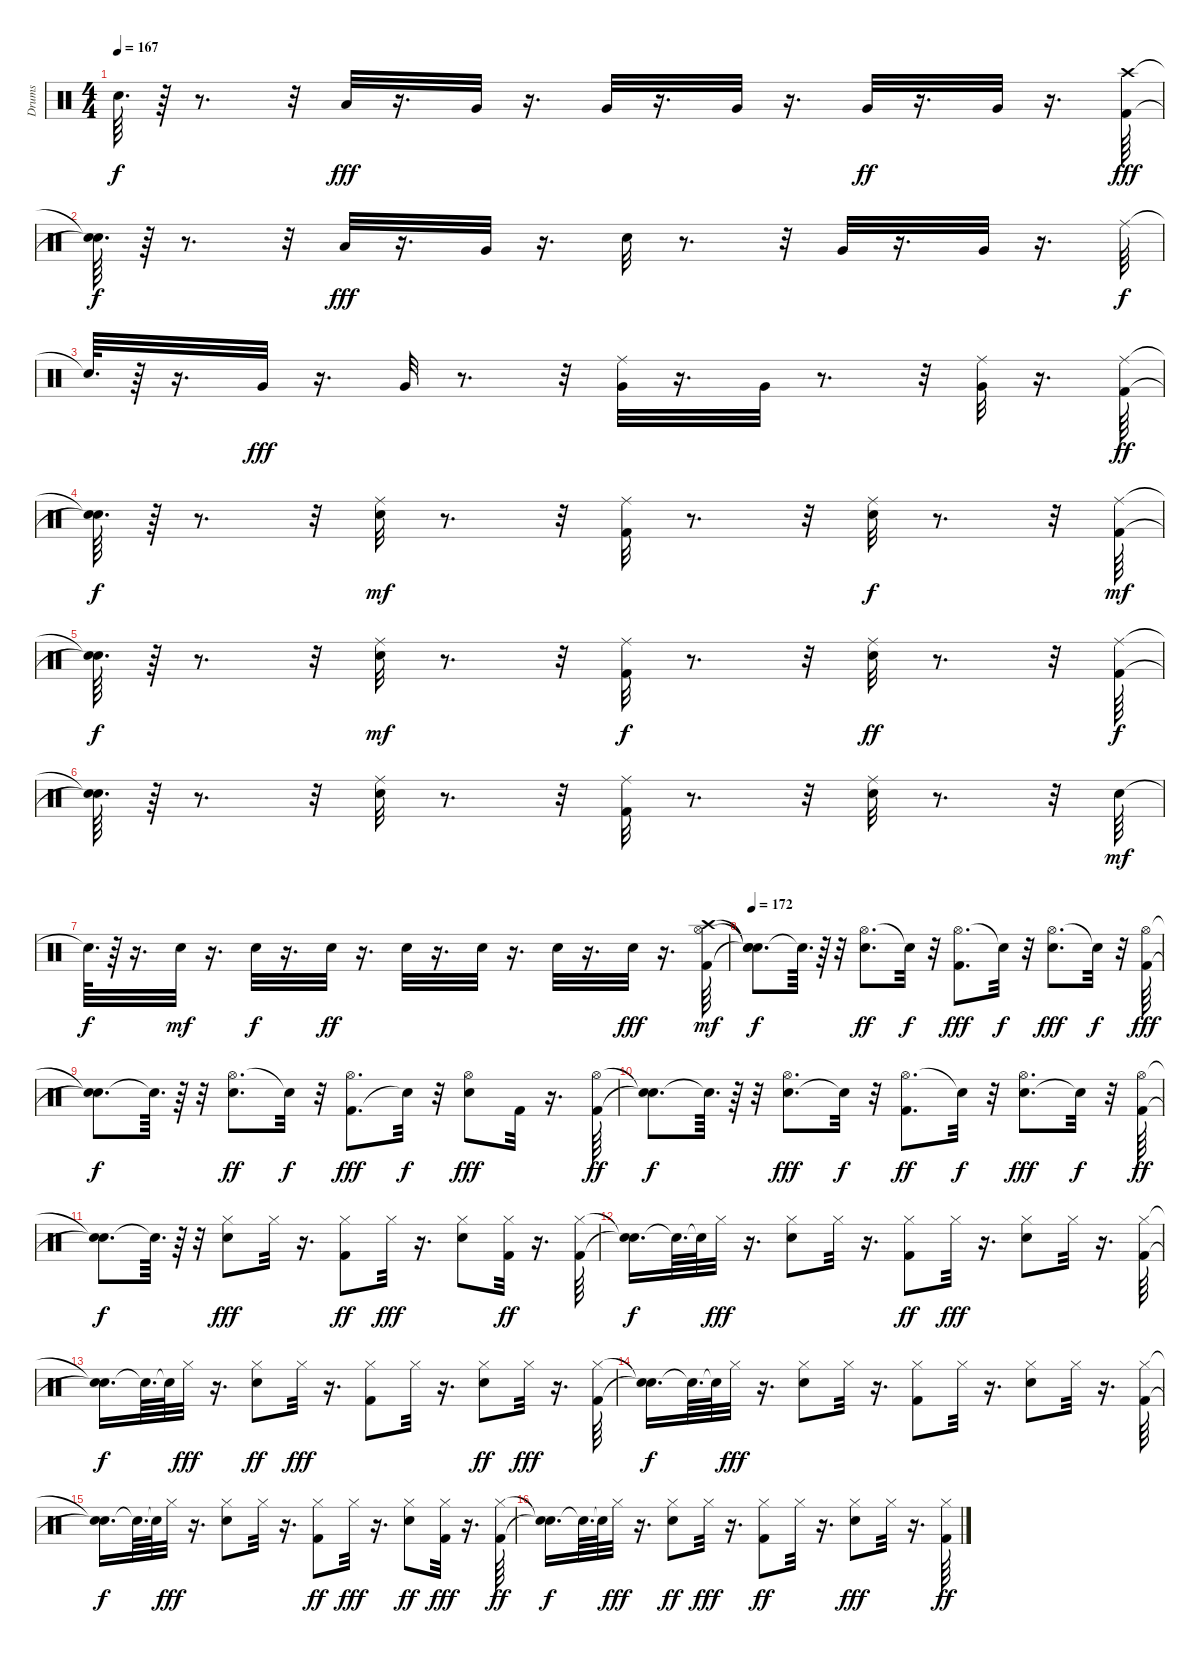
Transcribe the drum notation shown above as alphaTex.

\track ("Drums" "Drums") {instrument percussion}
\staff {score}
\articulation defaults
\ts (4 4)
\tempo 167
\clef neutral
\ks c "Snare (hit)"{t}.64{d dy f}
r.64 r.8{d} r.32 "Low Floor Tom (hit)".32{dy fff} r.16{d} "Very Low Tom (hit)".32 r.16{d} "Very Low Tom (hit)".32 r.16{d} "Very Low Tom (hit)".32 r.16{d} "Very Low Tom (hit)".32{dy ff} r.16{d} "Very Low Tom (hit)".32 r.16{d} ("Kick (hit) 2" "Crash high (hit)").64{dy fff} |
("Snare (hit)"{t} "Snare (hit)"{t}).64{d dy f} r.64 r.8{d} r.32 "Low Tom (hit)".32{dy fff} r.16{d} "Very Low Tom (hit)".32 r.16{d} "Electric Snare (hit)".32 r.8{d} r.32 "Very Low Tom (hit)".32 r.16{d} "Very Low Tom (hit)".32 r.16{d} "Ride (middle)".64{dy f} |
"Snare (hit)"{t}.64{d} r.64 r.16{d} "Very Low Tom (hit)".32{dy fff} r.16{d} "Very Low Tom (hit)".32 r.8{d} r.32 ("Ride (middle)" "Very Low Tom (hit)").32 r.16{d} "Very Low Tom (hit)".32 r.8{d} r.32 ("Very Low Tom (hit)" "Ride (middle)").32 r.16{d} ("Ride (middle)" "Kick (hit) 2").64{dy ff} |
("Snare (hit)"{t} "Snare (hit)"{t}).64{d dy f} r.64 r.8{d} r.32 ("Electric Snare (hit)" "Ride (middle)").32{dy mf} r.8{d} r.32 ("Kick (hit) 2" "Ride (middle)").32 r.8{d} r.32 ("Ride (middle)" "Electric Snare (hit)").32{dy f} r.8{d} r.32 ("Kick (hit) 2" "Ride (middle)").64{dy mf} |
("Snare (hit)"{t} "Snare (hit)"{t}).64{d dy f} r.64 r.8{d} r.32 ("Ride (middle)" "Electric Snare (hit)").32{dy mf} r.8{d} r.32 ("Ride (middle)" "Kick (hit) 2").32{dy f} r.8{d} r.32 ("Ride (middle)" "Electric Snare (hit)").32{dy ff} r.8{d} r.32 ("Ride (middle)" "Kick (hit) 2").64{dy f} |
("Snare (hit)"{t} "Snare (hit)"{t}).64{d} r.64 r.8{d} r.32 ("Electric Snare (hit)" "Ride (middle)").32 r.8{d} r.32 ("Ride (middle)" "Kick (hit) 2").32 r.8{d} r.32 ("Ride (middle)" "Electric Snare (hit)").32 r.8{d} r.32 "Snare (hit) 2".64{dy mf} |
"Snare (hit)"{t}.64{d dy f} r.64 r.16{d} "Snare (hit) 2".32{dy mf} r.16{d} "Snare (hit) 2".32{dy f} r.16{d} "Snare (hit) 2".32{dy ff} r.16{d} "Snare (hit) 2".32 r.16{d} "Snare (hit) 2".32 r.16{d} "Snare (hit) 2".32 r.16{d} "Snare (hit) 2".32{dy fff} r.16{d} ("Kick (hit) 2" "Hi-Hat (open)" "Crash high (hit)").64{dy mf} |
\tempo 172
("Snare (hit)"{t} "Snare (hit)"{t} "Snare (hit)"{t}).8{d dy f} "Snare (hit)"{t}.64{d} r.64 r.32 ("Hi-Hat (open)" "Electric Snare (hit)").8{d dy ff} "Snare (hit)"{t}.32{dy f} r.32 ("Hi-Hat (open)" "Kick (hit) 2").8{d dy fff} "Snare (hit)"{t}.32{dy f} r.32 ("Hi-Hat (open)" "Electric Snare (hit)").8{d dy fff} "Snare (hit)"{t}.32{dy f} r.32 ("Hi-Hat (open)" "Kick (hit) 2").64{dy fff} |
("Snare (hit)"{t} "Snare (hit)"{t}).8{d dy f} "Snare (hit)"{t}.64{d} r.64 r.32 ("Hi-Hat (open)" "Electric Snare (hit)").8{d dy ff} "Snare (hit)"{t}.32{dy f} r.32 ("Kick (hit) 2" "Hi-Hat (open)").8{d dy fff} "Snare (hit)"{t}.32{dy f} r.32 ("Electric Snare (hit)" "Hi-Hat (open)").8{dy fff} "Kick (hit) 2".32 r.16{d} ("Hi-Hat (open)" "Kick (hit) 2").64{dy ff} |
("Snare (hit)"{t} "Snare (hit)"{t}).8{d dy f} "Snare (hit)"{t}.64{d} r.64 r.32 ("Electric Snare (hit)" "Hi-Hat (open)").8{d dy fff} "Snare (hit)"{t}.32{dy f} r.32 ("Hi-Hat (open)" "Kick (hit) 2").8{d dy ff} "Snare (hit)"{t}.32{dy f} r.32 ("Electric Snare (hit)" "Hi-Hat (open)").8{d dy fff} "Snare (hit)"{t}.32{dy f} r.32 ("Kick (hit) 2" "Hi-Hat (open)").64{dy ff} |
("Snare (hit)"{t} "Snare (hit)"{t}).8{d dy f} "Snare (hit)"{t}.64{d} r.64 r.32 ("Electric Snare (hit)" "Hi-Hat (closed)").8{dy fff} "Hi-Hat (closed)".32 r.16{d} ("Hi-Hat (closed)" "Kick (hit) 2").8{dy ff} "Hi-Hat (closed)".32{dy fff} r.16{d} ("Hi-Hat (closed)" "Electric Snare (hit)").8 ("Kick (hit) 2" "Hi-Hat (closed)").32{dy ff} r.16{d} ("Hi-Hat (closed)" "Kick (hit) 2").64 |
("Snare (hit)"{t} "Snare (hit)"{t}).16{d dy f} "Snare (hit)"{t}.64{d} "Snare (hit)"{t}.64 "Hi-Hat (closed)".32{dy fff} r.16{d} ("Electric Snare (hit)" "Hi-Hat (closed)").8 "Hi-Hat (closed)".32 r.16{d} ("Hi-Hat (closed)" "Kick (hit) 2").8{dy ff} "Hi-Hat (closed)".32{dy fff} r.16{d} ("Electric Snare (hit)" "Hi-Hat (closed)").8 "Hi-Hat (closed)".32 r.16{d} ("Kick (hit) 2" "Hi-Hat (closed)").64 |
("Snare (hit)"{t} "Snare (hit)"{t}).16{d dy f} "Snare (hit)"{t}.64{d} "Snare (hit)"{t}.64 "Hi-Hat (closed)".32{dy fff} r.16{d} ("Hi-Hat (closed)" "Electric Snare (hit)").8{dy ff} "Hi-Hat (closed)".32{dy fff} r.16{d} ("Kick (hit) 2" "Hi-Hat (closed)").8 "Hi-Hat (closed)".32 r.16{d} ("Hi-Hat (closed)" "Electric Snare (hit)").8{dy ff} "Hi-Hat (closed)".32{dy fff} r.16{d} ("Kick (hit) 2" "Hi-Hat (closed)").64 |
("Snare (hit)"{t} "Snare (hit)"{t}).16{d dy f} "Snare (hit)"{t}.64{d} "Snare (hit)"{t}.64 "Hi-Hat (closed)".32{dy fff} r.16{d} ("Electric Snare (hit)" "Hi-Hat (closed)").8 "Hi-Hat (closed)".32 r.16{d} ("Kick (hit) 2" "Hi-Hat (closed)").8 "Hi-Hat (closed)".32 r.16{d} ("Hi-Hat (closed)" "Electric Snare (hit)").8 "Hi-Hat (closed)".32 r.16{d} ("Hi-Hat (closed)" "Kick (hit) 2").64 |
("Snare (hit)"{t} "Snare (hit)"{t}).16{d dy f} "Snare (hit)"{t}.64{d} "Snare (hit)"{t}.64 "Hi-Hat (closed)".32{dy fff} r.16{d} ("Electric Snare (hit)" "Hi-Hat (closed)").8 "Hi-Hat (closed)".32 r.16{d} ("Hi-Hat (closed)" "Kick (hit) 2").8{dy ff} "Hi-Hat (closed)".32{dy fff} r.16{d} ("Hi-Hat (closed)" "Electric Snare (hit)").8{dy ff} ("Kick (hit) 2" "Hi-Hat (closed)").32{dy fff} r.16{d} ("Hi-Hat (closed)" "Kick (hit) 2").64{dy ff} |
("Snare (hit)"{t} "Snare (hit)"{t}).16{d dy f} "Snare (hit)"{t}.64{d} "Snare (hit)"{t}.64 "Hi-Hat (closed)".32{dy fff} r.16{d} ("Hi-Hat (closed)" "Electric Snare (hit)").8{dy ff} "Hi-Hat (closed)".32{dy fff} r.16{d} ("Hi-Hat (closed)" "Kick (hit) 2").8{dy ff} "Hi-Hat (closed)".32 r.16{d} ("Electric Snare (hit)" "Hi-Hat (closed)").8{dy fff} "Hi-Hat (closed)".32 r.16{d} ("Hi-Hat (closed)" "Kick (hit) 2").64{dy ff}
